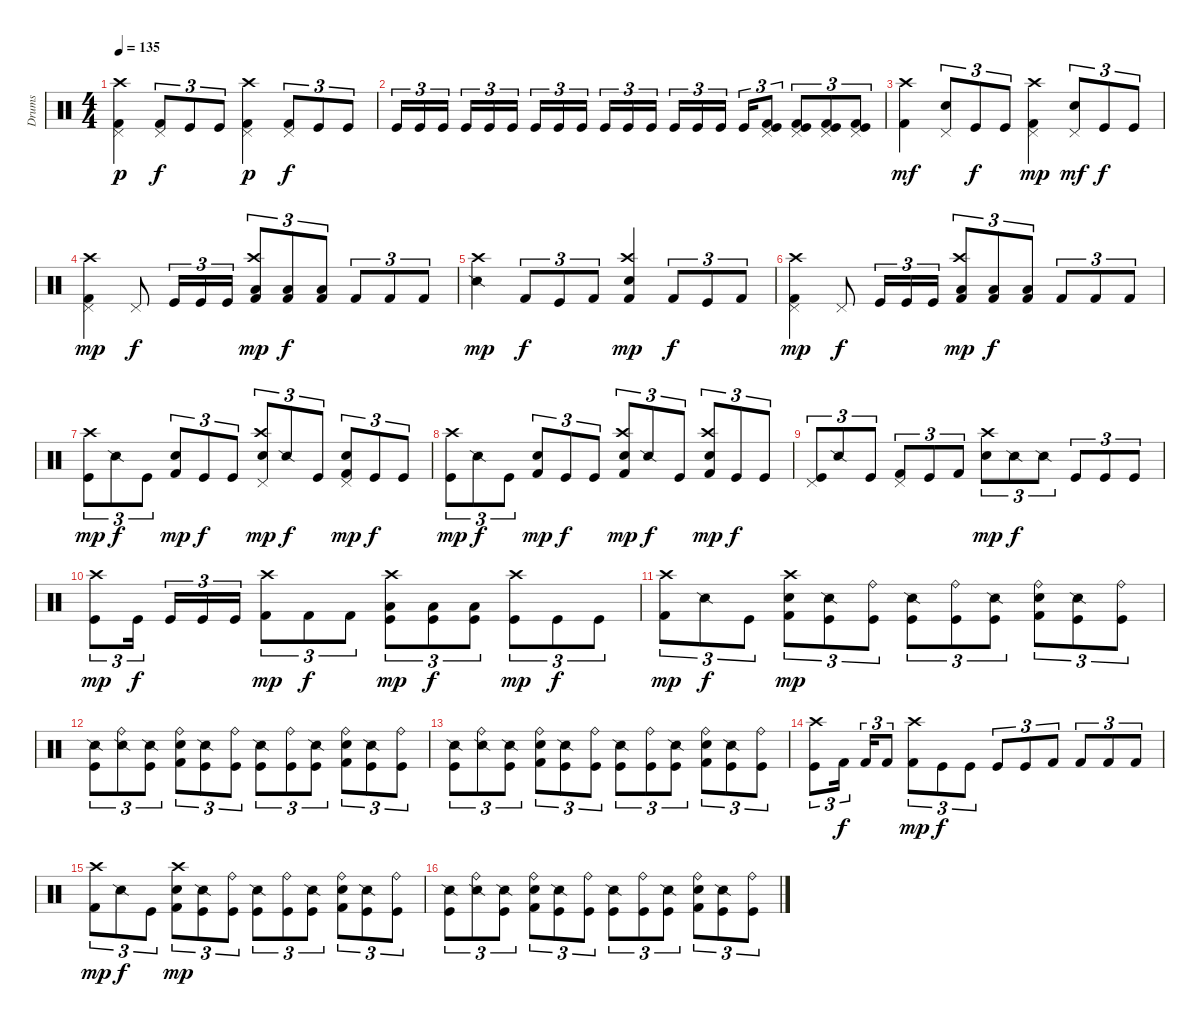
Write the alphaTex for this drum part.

\track ("Drums" "Drums") {instrument percussion}
\staff {score}
\articulation defaults
\ts (4 4)
\tempo 135
\clef neutral
\ks c
("Kick (hit) 2" "Pedal Hi-Hat (hit)" "Crash high (hit)").4{dy p} ("Kick (hit) 2" "Pedal Hi-Hat (hit)").8{tu (3 2) dy f} "Kick (hit)".8{tu (3 2)} "Kick (hit)".8{tu (3 2)} ("Kick (hit) 2" "Pedal Hi-Hat (hit)" "Crash high (hit)").4{dy p} ("Kick (hit) 2" "Pedal Hi-Hat (hit)").8{tu (3 2) dy f} "Kick (hit)".8{tu (3 2)} "Kick (hit)".8{tu (3 2)} |
"Kick (hit)".16{tu (3 2)} "Kick (hit)".16{tu (3 2)} "Kick (hit)".16{tu (3 2)} "Kick (hit)".16{tu (3 2)} "Kick (hit)".16{tu (3 2)} "Kick (hit)".16{tu (3 2)} "Kick (hit)".16{tu (3 2)} "Kick (hit)".16{tu (3 2)} "Kick (hit)".16{tu (3 2)} "Kick (hit)".16{tu (3 2)} "Kick (hit)".16{tu (3 2)} "Kick (hit)".16{tu (3 2)} "Kick (hit)".16{tu (3 2)} "Kick (hit)".16{tu (3 2)} "Kick (hit)".16{tu (3 2)} "Kick (hit)".16{tu (3 2)} ("Kick (hit)" "Kick (hit) 2" "Pedal Hi-Hat (hit)").8{tu (3 2)} ("Kick (hit)" "Kick (hit) 2" "Pedal Hi-Hat (hit)").8{tu (3 2)} ("Kick (hit)" "Kick (hit) 2" "Pedal Hi-Hat (hit)").8{tu (3 2)} ("Kick (hit)" "Kick (hit) 2" "Pedal Hi-Hat (hit)").8{tu (3 2)} |
("Kick (hit) 2" "Crash high (hit)").4{dy mf} ("Snare (hit) 2" "Pedal Hi-Hat (hit)").8{tu (3 2)} "Kick (hit)".8{tu (3 2) dy f} "Kick (hit)".8{tu (3 2)} ("Kick (hit) 2" "Pedal Hi-Hat (hit)" "Crash high (hit)").4{dy mp} ("Snare (hit) 2" "Pedal Hi-Hat (hit)").8{tu (3 2) dy mf} "Kick (hit)".8{tu (3 2) dy f} "Kick (hit)".8{tu (3 2)} |
("Kick (hit) 2" "Crash high (hit)" "Pedal Hi-Hat (hit)").4{dy mp} "Pedal Hi-Hat (hit)".8{dy f} "Kick (hit)".16{tu (3 2)} "Kick (hit)".16{tu (3 2)} "Kick (hit)".16{tu (3 2)} ("Kick (hit) 2" "Low Floor Tom (hit)" "Crash high (hit)").8{tu (3 2) dy mp} ("Kick (hit) 2" "Low Floor Tom (hit)").8{tu (3 2) dy f} ("Kick (hit) 2" "Low Floor Tom (hit)").8{tu (3 2)} "Kick (hit) 2".8{tu (3 2)} "Kick (hit) 2".8{tu (3 2)} "Kick (hit) 2".8{tu (3 2)} |
("Snare (side stick) 2" "Crash high (hit)").4{dy mp} "Kick (hit) 2".8{tu (3 2) dy f} "Kick (hit)".8{tu (3 2)} "Kick (hit) 2".8{tu (3 2)} ("Kick (hit) 2" "Snare (hit) 2" "Crash high (hit)").4{dy mp} "Kick (hit) 2".8{tu (3 2) dy f} "Kick (hit)".8{tu (3 2)} "Kick (hit) 2".8{tu (3 2)} |
("Kick (hit) 2" "Crash high (hit)" "Pedal Hi-Hat (hit)").4{dy mp} "Pedal Hi-Hat (hit)".8{dy f} "Kick (hit)".16{tu (3 2)} "Kick (hit)".16{tu (3 2)} "Kick (hit)".16{tu (3 2)} ("Kick (hit) 2" "Low Floor Tom (hit)" "Crash high (hit)").8{tu (3 2) dy mp} ("Kick (hit) 2" "Low Floor Tom (hit)").8{tu (3 2) dy f} ("Kick (hit) 2" "Low Floor Tom (hit)").8{tu (3 2)} "Kick (hit) 2".8{tu (3 2)} "Kick (hit) 2".8{tu (3 2)} "Kick (hit) 2".8{tu (3 2)} |
("Kick (hit)" "Crash high (hit)").8{tu (3 2) dy mp} "Snare (side stick) 2".8{tu (3 2) dy f} "Kick (hit)".8{tu (3 2)} ("Kick (hit) 2" "Snare (hit) 2").8{tu (3 2) dy mp} "Kick (hit)".8{tu (3 2) dy f} "Kick (hit)".8{tu (3 2)} ("Snare (hit) 2" "Pedal Hi-Hat (hit)" "Crash high (hit)").8{tu (3 2) dy mp} "Snare (side stick) 2".8{tu (3 2) dy f} "Kick (hit)".8{tu (3 2)} ("Kick (hit) 2" "Snare (hit) 2" "Pedal Hi-Hat (hit)").8{tu (3 2) dy mp} "Kick (hit)".8{tu (3 2) dy f} "Kick (hit)".8{tu (3 2)} |
("Kick (hit)" "Crash high (hit)").8{tu (3 2) dy mp} "Snare (side stick) 2".8{tu (3 2) dy f} "Kick (hit)".8{tu (3 2)} ("Kick (hit) 2" "Snare (hit) 2").8{tu (3 2) dy mp} "Kick (hit)".8{tu (3 2) dy f} "Kick (hit)".8{tu (3 2)} ("Kick (hit) 2" "Snare (hit) 2" "Crash high (hit)").8{tu (3 2) dy mp} "Snare (side stick) 2".8{tu (3 2) dy f} "Kick (hit)".8{tu (3 2)} ("Kick (hit) 2" "Snare (hit) 2" "Crash high (hit)").8{tu (3 2) dy mp} "Kick (hit)".8{tu (3 2) dy f} "Kick (hit)".8{tu (3 2)} |
("Kick (hit)" "Pedal Hi-Hat (hit)").8{tu (3 2)} "Snare (side stick) 2".8{tu (3 2)} "Kick (hit)".8{tu (3 2)} ("Kick (hit) 2" "Pedal Hi-Hat (hit)").8{tu (3 2)} "Kick (hit)".8{tu (3 2)} "Kick (hit) 2".8{tu (3 2)} ("Snare (hit) 2" "Crash high (hit)").8{tu (3 2) dy mp} "Snare (side stick) 2".8{tu (3 2) dy f} "Snare (side stick) 2".8{tu (3 2)} "Kick (hit)".8{tu (3 2)} "Kick (hit)".8{tu (3 2)} "Kick (hit)".8{tu (3 2)} |
("Kick (hit)" "Crash high (hit)").8{tu (3 2) dy mp} "Kick (hit)".16{tu (3 2) dy f} "Kick (hit)".16{tu (3 2)} "Kick (hit)".16{tu (3 2)} "Kick (hit)".16{tu (3 2)} ("Kick (hit) 2" "Crash high (hit)").8{tu (3 2) dy mp} "Kick (hit) 2".8{tu (3 2) dy f} "Kick (hit) 2".8{tu (3 2)} ("Kick (hit)" "Low Floor Tom (hit)" "Crash high (hit)").8{tu (3 2) dy mp} ("Kick (hit)" "Low Floor Tom (hit)").8{tu (3 2) dy f} ("Kick (hit)" "Low Floor Tom (hit)").8{tu (3 2)} ("Kick (hit)" "Crash high (hit)").8{tu (3 2) dy mp} "Kick (hit)".8{tu (3 2) dy f} "Kick (hit)".8{tu (3 2)} |
("Kick (hit) 2" "Crash high (hit)").8{tu (3 2) dy mp} "Snare (side stick) 2".8{tu (3 2) dy f} "Kick (hit)".8{tu (3 2)} ("Kick (hit) 2" "Snare (hit) 2" "Crash high (hit)").8{tu (3 2) dy mp} ("Kick (hit)" "Snare (side stick) 2").8{tu (3 2)} ("Kick (hit)" "Ride (bell)").8{tu (3 2)} ("Kick (hit)" "Snare (side stick) 2").8{tu (3 2)} ("Kick (hit)" "Ride (bell)").8{tu (3 2)} ("Kick (hit)" "Snare (side stick) 2").8{tu (3 2)} ("Kick (hit) 2" "Ride (bell)" "Snare (hit) 2").8{tu (3 2)} ("Kick (hit)" "Snare (side stick) 2").8{tu (3 2)} ("Kick (hit)" "Ride (bell)").8{tu (3 2)} |
("Kick (hit)" "Snare (side stick) 2").8{tu (3 2)} ("Snare (side stick) 2" "Ride (bell)").8{tu (3 2)} ("Kick (hit)" "Snare (side stick) 2").8{tu (3 2)} ("Kick (hit) 2" "Ride (bell)" "Snare (hit) 2").8{tu (3 2)} ("Kick (hit)" "Snare (side stick) 2").8{tu (3 2)} ("Kick (hit)" "Ride (bell)").8{tu (3 2)} ("Kick (hit)" "Snare (side stick) 2").8{tu (3 2)} ("Kick (hit)" "Ride (bell)").8{tu (3 2)} ("Kick (hit)" "Snare (side stick) 2").8{tu (3 2)} ("Kick (hit) 2" "Ride (bell)" "Snare (hit) 2").8{tu (3 2)} ("Kick (hit)" "Snare (side stick) 2").8{tu (3 2)} ("Kick (hit)" "Ride (bell)").8{tu (3 2)} |
("Kick (hit)" "Snare (side stick) 2").8{tu (3 2)} ("Snare (side stick) 2" "Ride (bell)").8{tu (3 2)} ("Kick (hit)" "Snare (side stick) 2").8{tu (3 2)} ("Kick (hit) 2" "Ride (bell)" "Snare (hit) 2").8{tu (3 2)} ("Kick (hit)" "Snare (side stick) 2").8{tu (3 2)} ("Kick (hit)" "Ride (bell)").8{tu (3 2)} ("Kick (hit)" "Snare (side stick) 2").8{tu (3 2)} ("Kick (hit)" "Ride (bell)").8{tu (3 2)} ("Kick (hit)" "Snare (side stick) 2").8{tu (3 2)} ("Kick (hit) 2" "Ride (bell)" "Snare (hit) 2").8{tu (3 2)} ("Kick (hit)" "Snare (side stick) 2").8{tu (3 2)} ("Kick (hit)" "Ride (bell)").8{tu (3 2)} |
("Kick (hit)" "Crash high (hit)").8{tu (3 2)} "Kick (hit) 2".16{tu (3 2) dy f} "Kick (hit) 2".16{tu (3 2)} "Kick (hit) 2".8{tu (3 2)} ("Kick (hit) 2" "Crash high (hit)").8{tu (3 2) dy mp} "Kick (hit)".8{tu (3 2) dy f} "Kick (hit)".8{tu (3 2)} "Kick (hit)".8{tu (3 2)} "Kick (hit)".8{tu (3 2)} "Kick (hit) 2".8{tu (3 2)} "Kick (hit) 2".8{tu (3 2)} "Kick (hit) 2".8{tu (3 2)} "Kick (hit) 2".8{tu (3 2)} |
("Kick (hit) 2" "Crash high (hit)").8{tu (3 2) dy mp} "Snare (side stick) 2".8{tu (3 2) dy f} "Kick (hit)".8{tu (3 2)} ("Kick (hit) 2" "Snare (hit) 2" "Crash high (hit)").8{tu (3 2) dy mp} ("Kick (hit)" "Snare (side stick) 2").8{tu (3 2)} ("Kick (hit)" "Ride (bell)").8{tu (3 2)} ("Kick (hit)" "Snare (side stick) 2").8{tu (3 2)} ("Kick (hit)" "Ride (bell)").8{tu (3 2)} ("Kick (hit)" "Snare (side stick) 2").8{tu (3 2)} ("Kick (hit) 2" "Ride (bell)" "Snare (hit) 2").8{tu (3 2)} ("Kick (hit)" "Snare (side stick) 2").8{tu (3 2)} ("Kick (hit)" "Ride (bell)").8{tu (3 2)} |
("Kick (hit)" "Snare (side stick) 2").8{tu (3 2)} ("Snare (side stick) 2" "Ride (bell)").8{tu (3 2)} ("Kick (hit)" "Snare (side stick) 2").8{tu (3 2)} ("Kick (hit) 2" "Ride (bell)" "Snare (hit) 2").8{tu (3 2)} ("Kick (hit)" "Snare (side stick) 2").8{tu (3 2)} ("Kick (hit)" "Ride (bell)").8{tu (3 2)} ("Kick (hit)" "Snare (side stick) 2").8{tu (3 2)} ("Kick (hit)" "Ride (bell)").8{tu (3 2)} ("Kick (hit)" "Snare (side stick) 2").8{tu (3 2)} ("Kick (hit) 2" "Ride (bell)" "Snare (hit) 2").8{tu (3 2)} ("Kick (hit)" "Snare (side stick) 2").8{tu (3 2)} ("Kick (hit)" "Ride (bell)").8{tu (3 2)}
